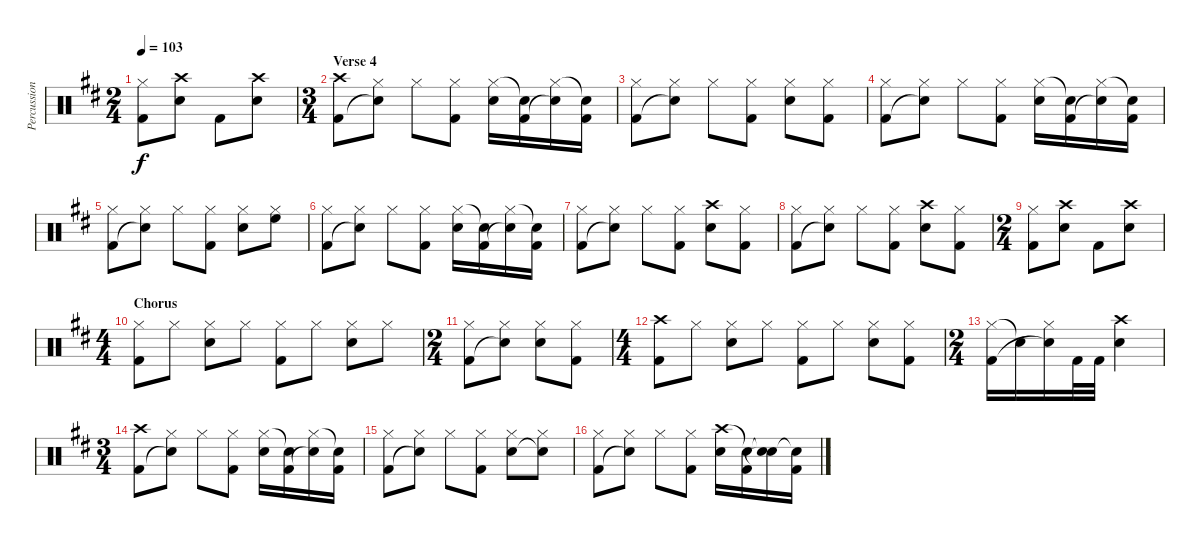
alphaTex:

\track ("Percussions" "Percussion") {instrument percussion}
\staff {score}
\articulation defaults
\ts (2 4)
\tempo 103
\clef neutral
\ks bminor
("Hi-Hat (closed)" "Kick (hit) 2").8{dy f} ("Crash high (hit)" "Snare (hit) 2").8 "Kick (hit) 2".8 ("Crash high (hit)" "Snare (hit) 2").8 |
\ts (3 4)
\section ("" "Verse 4")
("Crash high (hit)" "Kick (hit) 2").8 ("Hi-Hat (closed)" "Snare (hit)"{t}).8 "Hi-Hat (closed)".8 ("Hi-Hat (closed)" "Kick (hit) 2").8 ("Hi-Hat (closed)" "Snare (hit) 2").16 ("Snare (hit)"{t} "Kick (hit) 2").16 ("Hi-Hat (closed)" "Snare (hit)"{t}).16 ("Snare (hit)"{t} "Kick (hit) 2").16 |
("Hi-Hat (closed)" "Kick (hit) 2").8 ("Hi-Hat (closed)" "Snare (hit)"{t}).8 "Hi-Hat (closed)".8 ("Hi-Hat (closed)" "Kick (hit) 2").8 ("Hi-Hat (closed)" "Snare (hit) 2").8 ("Hi-Hat (closed)" "Kick (hit) 2").8 |
("Hi-Hat (closed)" "Kick (hit) 2").8 ("Hi-Hat (closed)" "Snare (hit)"{t}).8 "Hi-Hat (closed)".8 ("Hi-Hat (closed)" "Kick (hit) 2").8 ("Hi-Hat (closed)" "Snare (hit) 2").16 ("Snare (hit)"{t} "Kick (hit) 2").16 ("Hi-Hat (closed)" "Snare (hit)"{t}).16 ("Snare (hit)"{t} "Kick (hit) 2").16 |
("Hi-Hat (closed)" "Kick (hit) 2").8 ("Hi-Hat (closed)" "Snare (hit)"{t}).8 "Hi-Hat (closed)".8 ("Hi-Hat (closed)" "Kick (hit) 2").8 ("Hi-Hat (closed)" "Snare (hit) 2").8 ("Hi-Hat (closed)" "High Floor Tom (hit)").8 |
("Hi-Hat (closed)" "Kick (hit) 2").8 ("Hi-Hat (closed)" "Snare (hit)"{t}).8 "Hi-Hat (closed)".8 ("Hi-Hat (closed)" "Kick (hit) 2").8 ("Hi-Hat (closed)" "Snare (hit) 2").16 ("Snare (hit)"{t} "Kick (hit) 2").16 ("Hi-Hat (closed)" "Snare (hit)"{t}).16 ("Snare (hit)"{t} "Kick (hit) 2").16 |
("Hi-Hat (closed)" "Kick (hit) 2").8 ("Hi-Hat (closed)" "Snare (hit)"{t}).8 "Hi-Hat (closed)".8 ("Hi-Hat (closed)" "Kick (hit) 2").8 ("Crash high (hit)" "Snare (hit) 2").8 ("Hi-Hat (closed)" "Kick (hit) 2").8 |
("Hi-Hat (closed)" "Kick (hit) 2").8 ("Hi-Hat (closed)" "Snare (hit)"{t}).8 "Hi-Hat (closed)".8 ("Hi-Hat (closed)" "Kick (hit) 2").8 ("Crash high (hit)" "Snare (hit) 2").8 ("Hi-Hat (closed)" "Kick (hit) 2").8 |
\ts (2 4)
("Hi-Hat (closed)" "Kick (hit) 2").8 ("Crash high (hit)" "Snare (hit) 2").8 "Kick (hit) 2".8 ("Crash high (hit)" "Snare (hit) 2").8 |
\ts (4 4)
\section ("" "Chorus")
("Hi-Hat (closed)" "Kick (hit) 2").8 "Hi-Hat (closed)".8 ("Hi-Hat (closed)" "Snare (hit) 2").8 "Hi-Hat (closed)".8 ("Hi-Hat (closed)" "Kick (hit) 2").8 "Hi-Hat (closed)".8 ("Hi-Hat (closed)" "Snare (hit) 2").8 "Hi-Hat (closed)".8 |
\ts (2 4)
("Hi-Hat (closed)" "Kick (hit) 2").8 ("Hi-Hat (closed)" "Snare (hit)"{t}).8 ("Hi-Hat (closed)" "Snare (hit) 2").8 ("Hi-Hat (closed)" "Kick (hit) 2").8 |
\ts (4 4)
("Crash high (hit)" "Kick (hit) 2").8 "Hi-Hat (closed)".8 ("Hi-Hat (closed)" "Snare (hit) 2").8 "Hi-Hat (closed)".8 ("Hi-Hat (closed)" "Kick (hit) 2").8 "Hi-Hat (closed)".8 ("Hi-Hat (closed)" "Snare (hit) 2").8 ("Hi-Hat (closed)" "Kick (hit) 2").8 |
\ts (2 4)
("Hi-Hat (closed)" "Kick (hit) 2").16 "Snare (hit)"{t}.16 ("Hi-Hat (closed)" "Snare (hit)"{t}).16 "Kick (hit) 2".32 "Kick (hit) 2".32 ("Crash high (hit)" "Snare (hit) 2").4 |
\ts (3 4)
("Crash high (hit)" "Kick (hit) 2").8 ("Hi-Hat (closed)" "Snare (hit)"{t}).8 "Hi-Hat (closed)".8 ("Hi-Hat (closed)" "Kick (hit) 2").8 ("Hi-Hat (closed)" "Snare (hit) 2").16 ("Snare (hit)"{t} "Kick (hit) 2").16 ("Hi-Hat (closed)" "Snare (hit)"{t}).16 ("Snare (hit)"{t} "Kick (hit) 2").16 |
("Hi-Hat (closed)" "Kick (hit) 2").8 ("Hi-Hat (closed)" "Snare (hit)"{t}).8 "Hi-Hat (closed)".8 ("Hi-Hat (closed)" "Kick (hit) 2").8 ("Hi-Hat (closed)" "Snare (hit) 2").8 ("Hi-Hat (closed)" "Snare (hit)"{t}).8 |
("Hi-Hat (closed)" "Kick (hit) 2").8 ("Hi-Hat (closed)" "Snare (hit)"{t}).8 "Hi-Hat (closed)".8 ("Hi-Hat (closed)" "Kick (hit) 2").8 ("Crash high (hit)" "Snare (hit) 2").16 ("Snare (hit)"{t} "Kick (hit) 2").16 ("Snare (hit)"{t} "Snare (hit)"{t}).16 ("Snare (hit)"{t} "Kick (hit) 2").16
